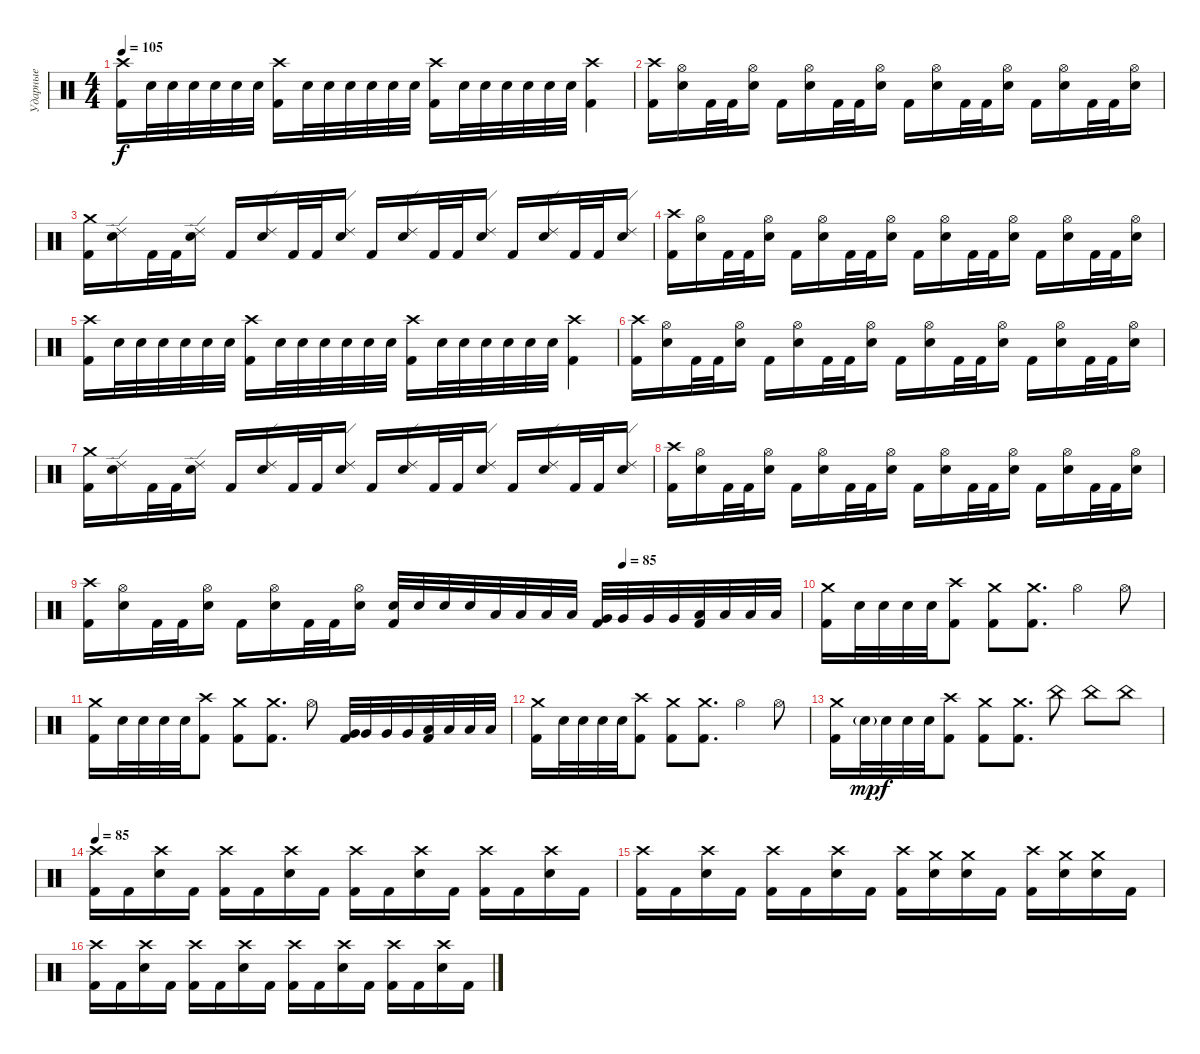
\track ("Ударные" "Ударные") {instrument percussion}
\staff {score}
\articulation defaults
\ts (4 4)
\tempo 105
\clef neutral
\ks c
("Crash high (hit)" "Kick (hit) 2").16{dy f} "Electric Snare (hit)".32 "Electric Snare (hit)".32 "Electric Snare (hit)".32 "Electric Snare (hit)".32 "Electric Snare (hit)".32 "Electric Snare (hit)".32 ("Crash high (hit)" "Kick (hit) 2").16 "Electric Snare (hit)".32 "Electric Snare (hit)".32 "Electric Snare (hit)".32 "Electric Snare (hit)".32 "Electric Snare (hit)".32 "Electric Snare (hit)".32 ("Crash high (hit)" "Kick (hit) 2").16 "Electric Snare (hit)".32 "Electric Snare (hit)".32 "Electric Snare (hit)".32 "Electric Snare (hit)".32 "Electric Snare (hit)".32 "Electric Snare (hit)".32 ("Crash high (hit)" "Kick (hit) 2").4 |
("Crash high (hit)" "Kick (hit) 2").16 ("Hi-Hat (open)" "Electric Snare (hit)").16 "Kick (hit) 2".32 "Kick (hit) 2".32 ("Hi-Hat (open)" "Electric Snare (hit)").16 "Kick (hit) 2".16 ("Hi-Hat (open)" "Electric Snare (hit)").16 "Kick (hit) 2".32 "Kick (hit) 2".32 ("Hi-Hat (open)" "Electric Snare (hit)").16 "Kick (hit) 2".16 ("Hi-Hat (open)" "Electric Snare (hit)").16 "Kick (hit) 2".32 "Kick (hit) 2".32 ("Hi-Hat (open)" "Electric Snare (hit)").16 "Kick (hit) 2".16 ("Hi-Hat (open)" "Electric Snare (hit)").16 "Kick (hit) 2".32 "Kick (hit) 2".32 ("Hi-Hat (open)" "Electric Snare (hit)").16 |
("Crash medium (hit)" "Kick (hit) 2").16 ("Ride (edge) 2" "Electric Snare (hit)").16 "Kick (hit) 2".32 "Kick (hit) 2".32 ("Ride (edge) 2" "Electric Snare (hit)").16 "Kick (hit) 2".16 ("Ride (edge) 2" "Electric Snare (hit)").16 "Kick (hit) 2".32 "Kick (hit) 2".32 ("Ride (edge) 2" "Electric Snare (hit)").16 "Kick (hit) 2".16 ("Ride (edge) 2" "Electric Snare (hit)").16 "Kick (hit) 2".32 "Kick (hit) 2".32 ("Ride (edge) 2" "Electric Snare (hit)").16 "Kick (hit) 2".16 ("Ride (edge) 2" "Electric Snare (hit)").16 "Kick (hit) 2".32 "Kick (hit) 2".32 ("Ride (edge) 2" "Electric Snare (hit)").16 |
("Crash high (hit)" "Kick (hit) 2").16 ("Hi-Hat (open)" "Electric Snare (hit)").16 "Kick (hit) 2".32 "Kick (hit) 2".32 ("Hi-Hat (open)" "Electric Snare (hit)").16 "Kick (hit) 2".16 ("Hi-Hat (open)" "Electric Snare (hit)").16 "Kick (hit) 2".32 "Kick (hit) 2".32 ("Hi-Hat (open)" "Electric Snare (hit)").16 "Kick (hit) 2".16 ("Hi-Hat (open)" "Electric Snare (hit)").16 "Kick (hit) 2".32 "Kick (hit) 2".32 ("Hi-Hat (open)" "Electric Snare (hit)").16 "Kick (hit) 2".16 ("Hi-Hat (open)" "Electric Snare (hit)").16 "Kick (hit) 2".32 "Kick (hit) 2".32 ("Hi-Hat (open)" "Electric Snare (hit)").16 |
("Crash high (hit)" "Kick (hit) 2").16 "Electric Snare (hit)".32 "Electric Snare (hit)".32 "Electric Snare (hit)".32 "Electric Snare (hit)".32 "Electric Snare (hit)".32 "Electric Snare (hit)".32 ("Crash high (hit)" "Kick (hit) 2").16 "Electric Snare (hit)".32 "Electric Snare (hit)".32 "Electric Snare (hit)".32 "Electric Snare (hit)".32 "Electric Snare (hit)".32 "Electric Snare (hit)".32 ("Crash high (hit)" "Kick (hit) 2").16 "Electric Snare (hit)".32 "Electric Snare (hit)".32 "Electric Snare (hit)".32 "Electric Snare (hit)".32 "Electric Snare (hit)".32 "Electric Snare (hit)".32 ("Crash high (hit)" "Kick (hit) 2").4 |
("Crash high (hit)" "Kick (hit) 2").16 ("Hi-Hat (open)" "Electric Snare (hit)").16 "Kick (hit) 2".32 "Kick (hit) 2".32 ("Hi-Hat (open)" "Electric Snare (hit)").16 "Kick (hit) 2".16 ("Hi-Hat (open)" "Electric Snare (hit)").16 "Kick (hit) 2".32 "Kick (hit) 2".32 ("Hi-Hat (open)" "Electric Snare (hit)").16 "Kick (hit) 2".16 ("Hi-Hat (open)" "Electric Snare (hit)").16 "Kick (hit) 2".32 "Kick (hit) 2".32 ("Hi-Hat (open)" "Electric Snare (hit)").16 "Kick (hit) 2".16 ("Hi-Hat (open)" "Electric Snare (hit)").16 "Kick (hit) 2".32 "Kick (hit) 2".32 ("Hi-Hat (open)" "Electric Snare (hit)").16 |
("Crash medium (hit)" "Kick (hit) 2").16 ("Ride (edge) 2" "Electric Snare (hit)").16 "Kick (hit) 2".32 "Kick (hit) 2".32 ("Ride (edge) 2" "Electric Snare (hit)").16 "Kick (hit) 2".16 ("Ride (edge) 2" "Electric Snare (hit)").16 "Kick (hit) 2".32 "Kick (hit) 2".32 ("Ride (edge) 2" "Electric Snare (hit)").16 "Kick (hit) 2".16 ("Ride (edge) 2" "Electric Snare (hit)").16 "Kick (hit) 2".32 "Kick (hit) 2".32 ("Ride (edge) 2" "Electric Snare (hit)").16 "Kick (hit) 2".16 ("Ride (edge) 2" "Electric Snare (hit)").16 "Kick (hit) 2".32 "Kick (hit) 2".32 ("Ride (edge) 2" "Electric Snare (hit)").16 |
("Crash high (hit)" "Kick (hit) 2").16 ("Hi-Hat (open)" "Electric Snare (hit)").16 "Kick (hit) 2".32 "Kick (hit) 2".32 ("Hi-Hat (open)" "Electric Snare (hit)").16 "Kick (hit) 2".16 ("Hi-Hat (open)" "Electric Snare (hit)").16 "Kick (hit) 2".32 "Kick (hit) 2".32 ("Hi-Hat (open)" "Electric Snare (hit)").16 "Kick (hit) 2".16 ("Hi-Hat (open)" "Electric Snare (hit)").16 "Kick (hit) 2".32 "Kick (hit) 2".32 ("Hi-Hat (open)" "Electric Snare (hit)").16 "Kick (hit) 2".16 ("Hi-Hat (open)" "Electric Snare (hit)").16 "Kick (hit) 2".32 "Kick (hit) 2".32 ("Hi-Hat (open)" "Electric Snare (hit)").16 |
\tempo (85 0.75)
("Crash high (hit)" "Kick (hit) 2").16 ("Hi-Hat (open)" "Electric Snare (hit)").16 "Kick (hit) 2".32 "Kick (hit) 2".32 ("Hi-Hat (open)" "Electric Snare (hit)").16 "Kick (hit) 2".16 ("Hi-Hat (open)" "Electric Snare (hit)").16 "Kick (hit) 2".32 "Kick (hit) 2".32 ("Hi-Hat (open)" "Electric Snare (hit)").16 ("Electric Snare (hit)" "Kick (hit) 2").32 "Electric Snare (hit)".32 "Electric Snare (hit)".32 "Electric Snare (hit)".32 "Low Tom (hit)".32 "Low Tom (hit)".32 "Low Tom (hit)".32 "Low Tom (hit)".32 ("Very Low Tom (hit)" "Kick (hit) 2").32 "Very Low Tom (hit)".32 "Very Low Tom (hit)".32 "Very Low Tom (hit)".32 ("Low Floor Tom (hit)" "Kick (hit) 2").32 "Low Floor Tom (hit)".32 "Low Floor Tom (hit)".32 "Low Floor Tom (hit)".32 |
("Crash medium (hit)" "Kick (hit) 2").16 "Electric Snare (hit)".32 "Electric Snare (hit)".32 "Electric Snare (hit)".32 "Electric Snare (hit)".32 ("Crash high (hit)" "Kick (hit) 2").8 ("Crash medium (hit)" "Kick (hit) 2").8 ("Crash medium (hit)" "Kick (hit) 2").8{d} "Hi-Hat (open)".4 "Hi-Hat (open)".8 |
("Crash medium (hit)" "Kick (hit) 2").16 "Electric Snare (hit)".32 "Electric Snare (hit)".32 "Electric Snare (hit)".32 "Electric Snare (hit)".32 ("Crash high (hit)" "Kick (hit) 2").8 ("Crash medium (hit)" "Kick (hit) 2").8 ("Crash medium (hit)" "Kick (hit) 2").8{d} "Hi-Hat (open)".8 ("Very Low Tom (hit)" "Kick (hit) 2").32 "Very Low Tom (hit)".32 "Very Low Tom (hit)".32 "Very Low Tom (hit)".32 ("Low Floor Tom (hit)" "Kick (hit) 2").32 "Low Floor Tom (hit)".32 "Low Floor Tom (hit)".32 "Low Floor Tom (hit)".32 |
("Crash medium (hit)" "Kick (hit) 2").16 "Electric Snare (hit)".32 "Electric Snare (hit)".32 "Electric Snare (hit)".32 "Electric Snare (hit)".32 ("Crash high (hit)" "Kick (hit) 2").8 ("Crash medium (hit)" "Kick (hit) 2").8 ("Crash medium (hit)" "Kick (hit) 2").8{d} "Hi-Hat (open)".4 "Hi-Hat (open)".8 |
("Crash medium (hit)" "Kick (hit) 2").16 "Electric Snare (hit)"{g}.32{dy mp} "Electric Snare (hit)".32{dy f} "Electric Snare (hit)".32 "Electric Snare (hit)".32 ("Crash high (hit)" "Kick (hit) 2").8 ("Crash medium (hit)" "Kick (hit) 2").8 ("Crash medium (hit)" "Kick (hit) 2").8{d} "China (hit)".8 "China (hit)".8 "China (hit)".8 |
\tempo 85
("Crash high (hit)" "Kick (hit) 2").16 "Kick (hit) 2".16 ("Crash high (hit)" "Electric Snare (hit)").16 "Kick (hit) 2".16 ("Crash high (hit)" "Kick (hit) 2").16 "Kick (hit) 2".16 ("Crash high (hit)" "Electric Snare (hit)").16 "Kick (hit) 2".16 ("Crash high (hit)" "Kick (hit) 2").16 "Kick (hit) 2".16 ("Crash high (hit)" "Electric Snare (hit)").16 "Kick (hit) 2".16 ("Crash high (hit)" "Kick (hit) 2").16 "Kick (hit) 2".16 ("Crash high (hit)" "Electric Snare (hit)").16 "Kick (hit) 2".16 |
("Crash high (hit)" "Kick (hit) 2").16 "Kick (hit) 2".16 ("Crash high (hit)" "Electric Snare (hit)").16 "Kick (hit) 2".16 ("Crash high (hit)" "Kick (hit) 2").16 "Kick (hit) 2".16 ("Crash high (hit)" "Electric Snare (hit)").16 "Kick (hit) 2".16 ("Crash high (hit)" "Kick (hit) 2").16 ("Crash medium (hit)" "Electric Snare (hit)").16 ("Crash medium (hit)" "Electric Snare (hit)").16 "Kick (hit) 2".16 ("Crash high (hit)" "Kick (hit) 2").16 ("Crash medium (hit)" "Electric Snare (hit)").16 ("Crash medium (hit)" "Electric Snare (hit)").16 "Kick (hit) 2".16 |
("Crash high (hit)" "Kick (hit) 2").16 "Kick (hit) 2".16 ("Crash high (hit)" "Electric Snare (hit)").16 "Kick (hit) 2".16 ("Crash high (hit)" "Kick (hit) 2").16 "Kick (hit) 2".16 ("Crash high (hit)" "Electric Snare (hit)").16 "Kick (hit) 2".16 ("Crash high (hit)" "Kick (hit) 2").16 "Kick (hit) 2".16 ("Crash high (hit)" "Electric Snare (hit)").16 "Kick (hit) 2".16 ("Crash high (hit)" "Kick (hit) 2").16 "Kick (hit) 2".16 ("Crash high (hit)" "Electric Snare (hit)").16 "Kick (hit) 2".16
